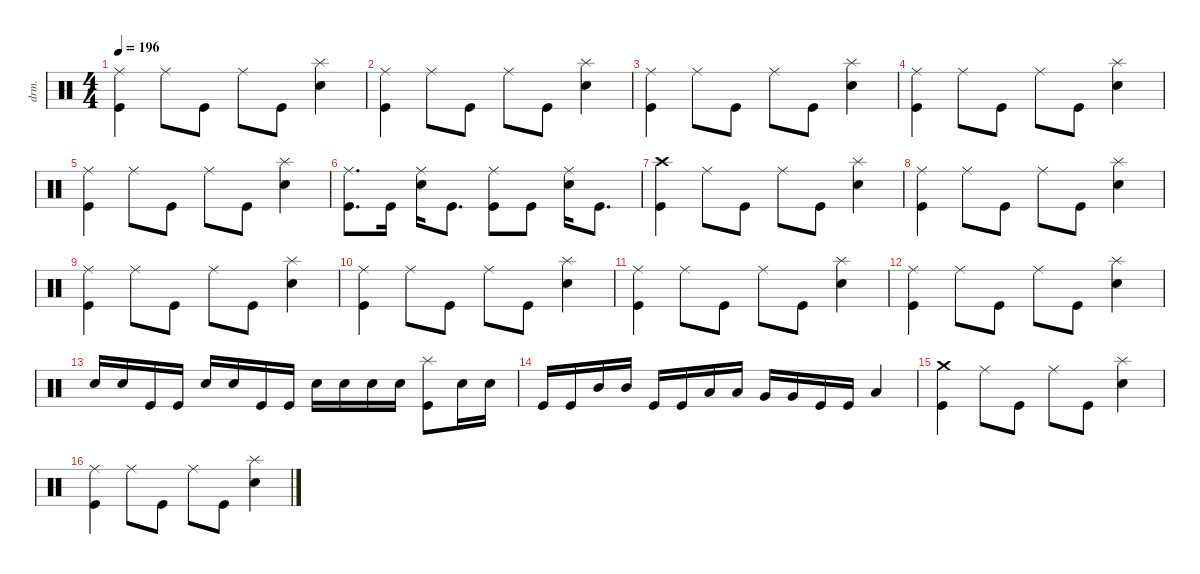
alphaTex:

\defaultSystemsLayout 4
\hideDynamics
\bracketExtendMode nobrackets
\otherSystemsTrackNameOrientation horizontal
\track ("Drum" "drm.") {instrument percussion}
\staff {score}
\articulation defaults
\ts (4 4)
\tempo 196
\clef neutral
\ks c
("Kick (hit)" "Ride (middle)").4{dy f beam Down} "Ride (middle)".8{beam Down} "Kick (hit)".8{beam Down} "Ride (middle)".8{beam Down} "Kick (hit)".8{beam Down} ("Snare (hit) 2" "Splash (hit)").4{dy ff beam Down} |
("Kick (hit)" "Ride (middle)").4{dy f beam Down} "Ride (middle)".8{beam Down} "Kick (hit)".8{beam Down} "Ride (middle)".8{beam Down} "Kick (hit)".8{beam Down} ("Snare (hit) 2" "Splash (hit)").4{dy ff beam Down} |
("Kick (hit)" "Ride (middle)").4{dy f beam Down} "Ride (middle)".8{beam Down} "Kick (hit)".8{beam Down} "Ride (middle)".8{beam Down} "Kick (hit)".8{beam Down} ("Snare (hit) 2" "Splash (hit)").4{dy ff beam Down} |
("Kick (hit)" "Ride (middle)").4{dy f beam Down} "Ride (middle)".8{beam Down} "Kick (hit)".8{beam Down} "Ride (middle)".8{beam Down} "Kick (hit)".8{beam Down} ("Snare (hit) 2" "Splash (hit)").4{dy ff beam Down} |
("Kick (hit)" "Ride (middle)").4{dy f beam Down} "Ride (middle)".8{beam Down} "Kick (hit)".8{beam Down} "Ride (middle)".8{beam Down} "Kick (hit)".8{beam Down} ("Snare (hit) 2" "Splash (hit)").4{dy ff beam Down} |
("Kick (hit)" "Ride (middle)").8{d dy f beam Down} "Kick (hit)".16{beam Down} ("Snare (hit) 2" "Ride (middle)").16{beam Down} "Kick (hit)".8{d beam Down} ("Kick (hit)" "Ride (middle)").8{beam Down} "Kick (hit)".8{beam Down} ("Snare (hit) 2" "Ride (middle)").16{beam Down} "Kick (hit)".8{d beam Down} |
("Kick (hit)" "Crash high (hit)").4{beam Down} "Ride (middle)".8{beam Down} "Kick (hit)".8{beam Down} "Ride (middle)".8{beam Down} "Kick (hit)".8{beam Down} ("Snare (hit) 2" "Splash (hit)").4{dy ff beam Down} |
("Kick (hit)" "Ride (middle)").4{dy f beam Down} "Ride (middle)".8{beam Down} "Kick (hit)".8{beam Down} "Ride (middle)".8{beam Down} "Kick (hit)".8{beam Down} ("Snare (hit) 2" "Splash (hit)").4{dy ff beam Down} |
("Kick (hit)" "Ride (middle)").4{dy f beam Down} "Ride (middle)".8{beam Down} "Kick (hit)".8{beam Down} "Ride (middle)".8{beam Down} "Kick (hit)".8{beam Down} ("Snare (hit) 2" "Splash (hit)").4{dy ff beam Down} |
("Kick (hit)" "Ride (middle)").4{dy f beam Down} "Ride (middle)".8{beam Down} "Kick (hit)".8{beam Down} "Ride (middle)".8{beam Down} "Kick (hit)".8{beam Down} ("Snare (hit) 2" "Splash (hit)").4{dy ff beam Down} |
("Kick (hit)" "Ride (middle)").4{dy f beam Down} "Ride (middle)".8{beam Down} "Kick (hit)".8{beam Down} "Ride (middle)".8{beam Down} "Kick (hit)".8{beam Down} ("Snare (hit) 2" "Splash (hit)").4{dy ff beam Down} |
("Kick (hit)" "Ride (middle)").4{dy f beam Down} "Ride (middle)".8{beam Down} "Kick (hit)".8{beam Down} "Ride (middle)".8{beam Down} "Kick (hit)".8{beam Down} ("Snare (hit) 2" "Splash (hit)").4{dy ff beam Down} |
"Snare (hit) 2".16{beam Up} "Snare (hit) 2".16{beam Up} "Kick (hit)".16{dy f beam Up} "Kick (hit)".16{beam Up} "Snare (hit) 2".16{dy ff beam Up} "Snare (hit) 2".16{beam Up} "Kick (hit)".16{dy f beam Up} "Kick (hit)".16{beam Up} "Snare (hit) 2".16{dy ff beam Down} "Snare (hit) 2".16{dy f beam Down} "Snare (hit) 2".16{dy ff beam Down} "Snare (hit) 2".16{beam Down} ("Kick (hit)" "Splash (hit)").8{dy f beam Down} "Snare (hit) 2".16{beam Down} "Snare (hit) 2".16{dy mf beam Down} |
"Kick (hit)".16{dy f beam Up} "Kick (hit)".16{beam Up} "Mid Tom (hit)".16{dy mf beam Up} "Mid Tom (hit)".16{beam Up} "Kick (hit)".16{dy f beam Up} "Kick (hit)".16{beam Up} "Low Tom (hit)".16{dy mp beam Up} "Low Tom (hit)".16{dy p beam Up} "Very Low Tom (hit)".16{dy mp beam Up} "Very Low Tom (hit)".16{dy p beam Up} "Kick (hit)".16{dy f beam Up} "Kick (hit)".16{beam Up} "Low Floor Tom (hit)".4{dy mp beam Up} |
("Kick (hit)" "Crash medium (hit)").4{dy f beam Down} "Ride (middle)".8{beam Down} "Kick (hit)".8{beam Down} "Ride (middle)".8{beam Down} "Kick (hit)".8{beam Down} ("Snare (hit) 2" "Splash (hit)").4{dy ff beam Down} |
("Kick (hit)" "Ride (middle)").4{dy f beam Down} "Ride (middle)".8{beam Down} "Kick (hit)".8{beam Down} "Ride (middle)".8{beam Down} "Kick (hit)".8{beam Down} ("Snare (hit) 2" "Splash (hit)").4{dy ff beam Down}
